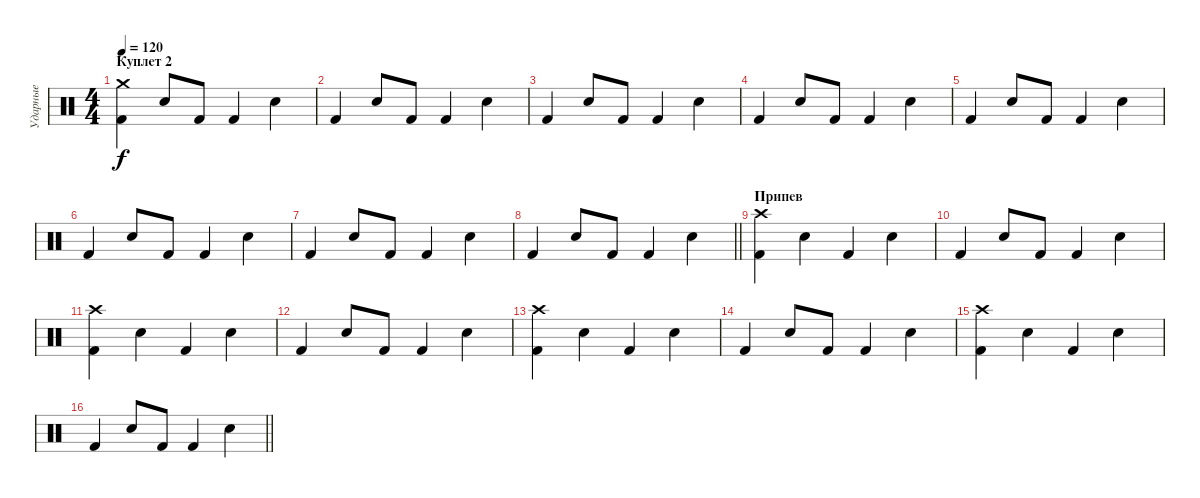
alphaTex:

\track ("Ударные" "Ударные") {instrument percussion}
\staff {score}
\articulation defaults
\ts (4 4)
\section ("" "Куплет 2")
\tempo 120
\clef neutral
\ks c
("Kick (hit) 2" "Crash medium (hit)").4{dy f} "Electric Snare (hit)".8 "Kick (hit) 2".8 "Kick (hit) 2".4 "Electric Snare (hit)".4 |
"Kick (hit) 2".4 "Electric Snare (hit)".8 "Kick (hit) 2".8 "Kick (hit) 2".4 "Electric Snare (hit)".4 |
"Kick (hit) 2".4 "Electric Snare (hit)".8 "Kick (hit) 2".8 "Kick (hit) 2".4 "Electric Snare (hit)".4 |
"Kick (hit) 2".4 "Electric Snare (hit)".8 "Kick (hit) 2".8 "Kick (hit) 2".4 "Electric Snare (hit)".4 |
"Kick (hit) 2".4 "Electric Snare (hit)".8 "Kick (hit) 2".8 "Kick (hit) 2".4 "Electric Snare (hit)".4 |
"Kick (hit) 2".4 "Electric Snare (hit)".8 "Kick (hit) 2".8 "Kick (hit) 2".4 "Electric Snare (hit)".4 |
"Kick (hit) 2".4 "Electric Snare (hit)".8 "Kick (hit) 2".8 "Kick (hit) 2".4 "Electric Snare (hit)".4 |
\barLineRight lightlight "Kick (hit) 2".4 "Electric Snare (hit)".8 "Kick (hit) 2".8 "Kick (hit) 2".4 "Electric Snare (hit)".4
|
\section ("" "Припев")
("Kick (hit) 2" "Crash high (hit)").4 "Electric Snare (hit)".4 "Kick (hit) 2".4 "Electric Snare (hit)".4 |
"Kick (hit) 2".4 "Electric Snare (hit)".8 "Kick (hit) 2".8 "Kick (hit) 2".4 "Electric Snare (hit)".4 |
("Kick (hit) 2" "Crash high (hit)").4 "Electric Snare (hit)".4 "Kick (hit) 2".4 "Electric Snare (hit)".4 |
"Kick (hit) 2".4 "Electric Snare (hit)".8 "Kick (hit) 2".8 "Kick (hit) 2".4 "Electric Snare (hit)".4 |
("Kick (hit) 2" "Crash high (hit)").4 "Electric Snare (hit)".4 "Kick (hit) 2".4 "Electric Snare (hit)".4 |
"Kick (hit) 2".4 "Electric Snare (hit)".8 "Kick (hit) 2".8 "Kick (hit) 2".4 "Electric Snare (hit)".4 |
("Kick (hit) 2" "Crash high (hit)").4 "Electric Snare (hit)".4 "Kick (hit) 2".4 "Electric Snare (hit)".4 |
\barLineRight lightlight "Kick (hit) 2".4 "Electric Snare (hit)".8 "Kick (hit) 2".8 "Kick (hit) 2".4 "Electric Snare (hit)".4
